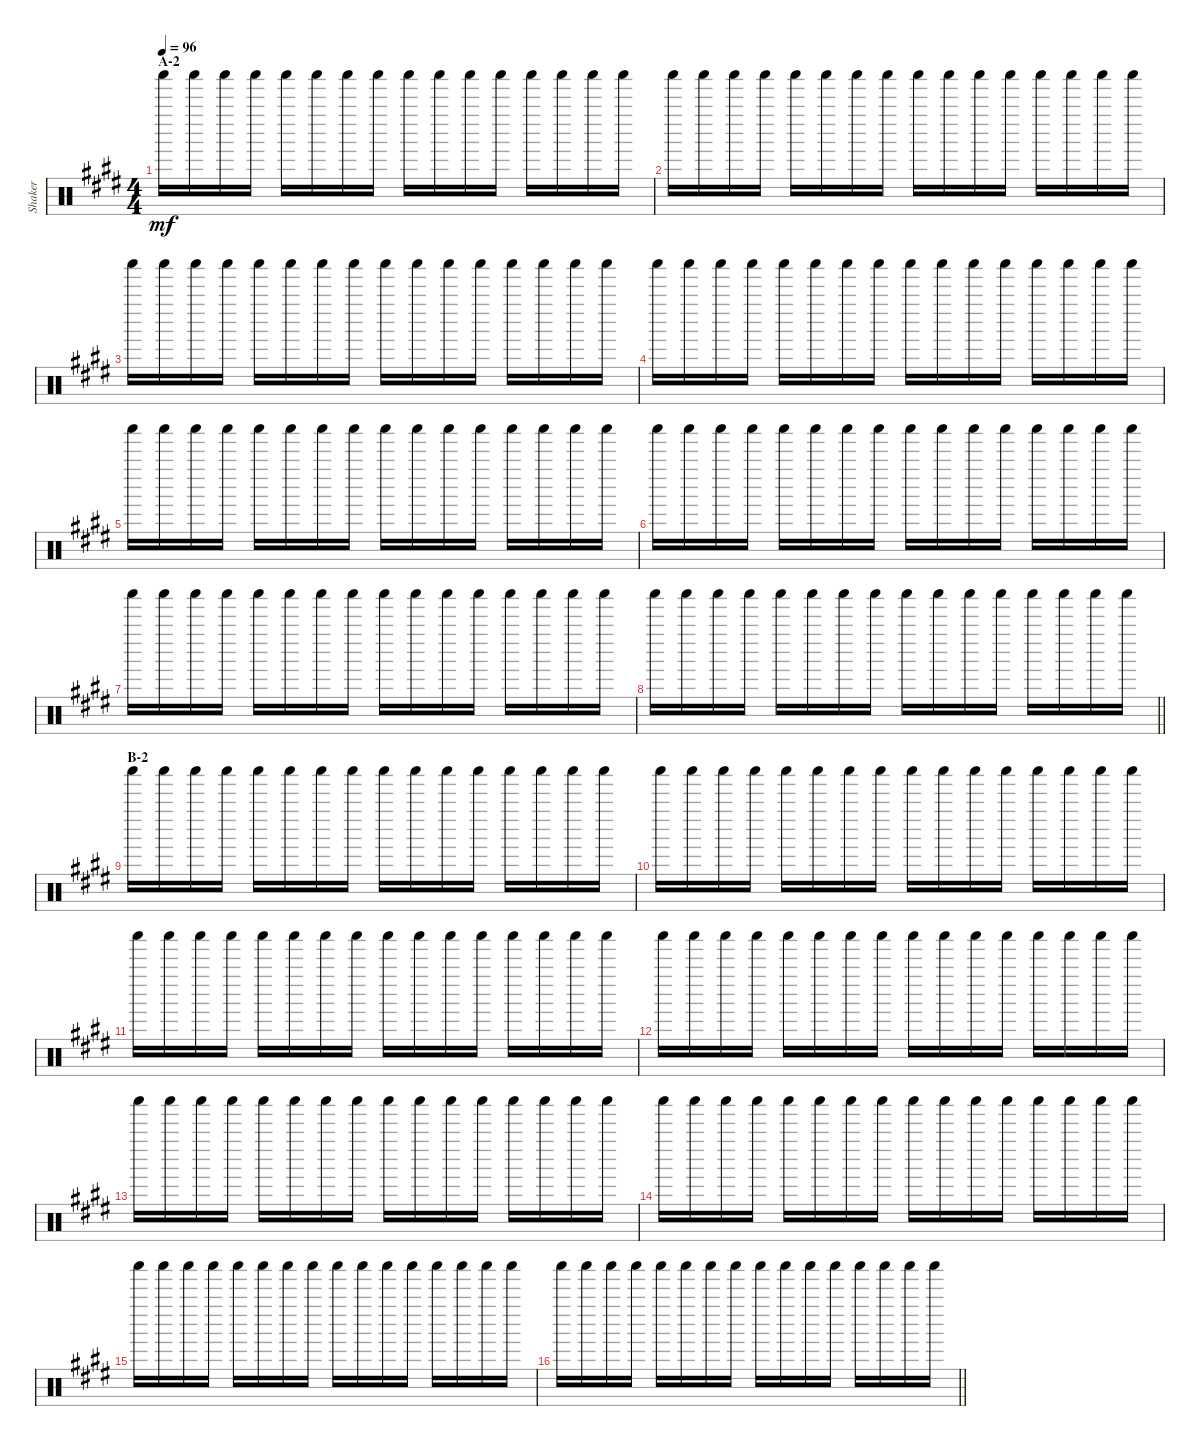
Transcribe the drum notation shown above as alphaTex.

\track ("Shaker" "Shaker") {instrument percussion}
\staff {score}
\articulation defaults
\ts (4 4)
\section ("" "A-2")
\tempo 96
\clef neutral
\ks e "Shaker (hit)".16{dy mf} "Shaker (hit)".16 "Shaker (hit)".16 "Shaker (hit)".16 "Shaker (hit)".16 "Shaker (hit)".16 "Shaker (hit)".16 "Shaker (hit)".16 "Shaker (hit)".16 "Shaker (hit)".16 "Shaker (hit)".16 "Shaker (hit)".16 "Shaker (hit)".16 "Shaker (hit)".16 "Shaker (hit)".16 "Shaker (hit)".16
|
"Shaker (hit)".16 "Shaker (hit)".16 "Shaker (hit)".16 "Shaker (hit)".16 "Shaker (hit)".16 "Shaker (hit)".16 "Shaker (hit)".16 "Shaker (hit)".16 "Shaker (hit)".16 "Shaker (hit)".16 "Shaker (hit)".16 "Shaker (hit)".16 "Shaker (hit)".16 "Shaker (hit)".16 "Shaker (hit)".16 "Shaker (hit)".16 |
"Shaker (hit)".16 "Shaker (hit)".16 "Shaker (hit)".16 "Shaker (hit)".16 "Shaker (hit)".16 "Shaker (hit)".16 "Shaker (hit)".16 "Shaker (hit)".16 "Shaker (hit)".16 "Shaker (hit)".16 "Shaker (hit)".16 "Shaker (hit)".16 "Shaker (hit)".16 "Shaker (hit)".16 "Shaker (hit)".16 "Shaker (hit)".16 |
"Shaker (hit)".16 "Shaker (hit)".16 "Shaker (hit)".16 "Shaker (hit)".16 "Shaker (hit)".16 "Shaker (hit)".16 "Shaker (hit)".16 "Shaker (hit)".16 "Shaker (hit)".16 "Shaker (hit)".16 "Shaker (hit)".16 "Shaker (hit)".16 "Shaker (hit)".16 "Shaker (hit)".16 "Shaker (hit)".16 "Shaker (hit)".16 |
"Shaker (hit)".16 "Shaker (hit)".16 "Shaker (hit)".16 "Shaker (hit)".16 "Shaker (hit)".16 "Shaker (hit)".16 "Shaker (hit)".16 "Shaker (hit)".16 "Shaker (hit)".16 "Shaker (hit)".16 "Shaker (hit)".16 "Shaker (hit)".16 "Shaker (hit)".16 "Shaker (hit)".16 "Shaker (hit)".16 "Shaker (hit)".16 |
"Shaker (hit)".16 "Shaker (hit)".16 "Shaker (hit)".16 "Shaker (hit)".16 "Shaker (hit)".16 "Shaker (hit)".16 "Shaker (hit)".16 "Shaker (hit)".16 "Shaker (hit)".16 "Shaker (hit)".16 "Shaker (hit)".16 "Shaker (hit)".16 "Shaker (hit)".16 "Shaker (hit)".16 "Shaker (hit)".16 "Shaker (hit)".16 |
"Shaker (hit)".16 "Shaker (hit)".16 "Shaker (hit)".16 "Shaker (hit)".16 "Shaker (hit)".16 "Shaker (hit)".16 "Shaker (hit)".16 "Shaker (hit)".16 "Shaker (hit)".16 "Shaker (hit)".16 "Shaker (hit)".16 "Shaker (hit)".16 "Shaker (hit)".16 "Shaker (hit)".16 "Shaker (hit)".16 "Shaker (hit)".16 |
\barLineRight lightlight "Shaker (hit)".16 "Shaker (hit)".16 "Shaker (hit)".16 "Shaker (hit)".16 "Shaker (hit)".16 "Shaker (hit)".16 "Shaker (hit)".16 "Shaker (hit)".16 "Shaker (hit)".16 "Shaker (hit)".16 "Shaker (hit)".16 "Shaker (hit)".16 "Shaker (hit)".16 "Shaker (hit)".16 "Shaker (hit)".16 "Shaker (hit)".16
|
\section ("" "B-2")
"Shaker (hit)".16 "Shaker (hit)".16 "Shaker (hit)".16 "Shaker (hit)".16 "Shaker (hit)".16 "Shaker (hit)".16 "Shaker (hit)".16 "Shaker (hit)".16 "Shaker (hit)".16 "Shaker (hit)".16 "Shaker (hit)".16 "Shaker (hit)".16 "Shaker (hit)".16 "Shaker (hit)".16 "Shaker (hit)".16 "Shaker (hit)".16 |
"Shaker (hit)".16 "Shaker (hit)".16 "Shaker (hit)".16 "Shaker (hit)".16 "Shaker (hit)".16 "Shaker (hit)".16 "Shaker (hit)".16 "Shaker (hit)".16 "Shaker (hit)".16 "Shaker (hit)".16 "Shaker (hit)".16 "Shaker (hit)".16 "Shaker (hit)".16 "Shaker (hit)".16 "Shaker (hit)".16 "Shaker (hit)".16 |
"Shaker (hit)".16 "Shaker (hit)".16 "Shaker (hit)".16 "Shaker (hit)".16 "Shaker (hit)".16 "Shaker (hit)".16 "Shaker (hit)".16 "Shaker (hit)".16 "Shaker (hit)".16 "Shaker (hit)".16 "Shaker (hit)".16 "Shaker (hit)".16 "Shaker (hit)".16 "Shaker (hit)".16 "Shaker (hit)".16 "Shaker (hit)".16 |
"Shaker (hit)".16 "Shaker (hit)".16 "Shaker (hit)".16 "Shaker (hit)".16 "Shaker (hit)".16 "Shaker (hit)".16 "Shaker (hit)".16 "Shaker (hit)".16 "Shaker (hit)".16 "Shaker (hit)".16 "Shaker (hit)".16 "Shaker (hit)".16 "Shaker (hit)".16 "Shaker (hit)".16 "Shaker (hit)".16 "Shaker (hit)".16 |
"Shaker (hit)".16 "Shaker (hit)".16 "Shaker (hit)".16 "Shaker (hit)".16 "Shaker (hit)".16 "Shaker (hit)".16 "Shaker (hit)".16 "Shaker (hit)".16 "Shaker (hit)".16 "Shaker (hit)".16 "Shaker (hit)".16 "Shaker (hit)".16 "Shaker (hit)".16 "Shaker (hit)".16 "Shaker (hit)".16 "Shaker (hit)".16 |
"Shaker (hit)".16 "Shaker (hit)".16 "Shaker (hit)".16 "Shaker (hit)".16 "Shaker (hit)".16 "Shaker (hit)".16 "Shaker (hit)".16 "Shaker (hit)".16 "Shaker (hit)".16 "Shaker (hit)".16 "Shaker (hit)".16 "Shaker (hit)".16 "Shaker (hit)".16 "Shaker (hit)".16 "Shaker (hit)".16 "Shaker (hit)".16 |
"Shaker (hit)".16 "Shaker (hit)".16 "Shaker (hit)".16 "Shaker (hit)".16 "Shaker (hit)".16 "Shaker (hit)".16 "Shaker (hit)".16 "Shaker (hit)".16 "Shaker (hit)".16 "Shaker (hit)".16 "Shaker (hit)".16 "Shaker (hit)".16 "Shaker (hit)".16 "Shaker (hit)".16 "Shaker (hit)".16 "Shaker (hit)".16 |
\barLineRight lightlight "Shaker (hit)".16 "Shaker (hit)".16 "Shaker (hit)".16 "Shaker (hit)".16 "Shaker (hit)".16 "Shaker (hit)".16 "Shaker (hit)".16 "Shaker (hit)".16 "Shaker (hit)".16 "Shaker (hit)".16 "Shaker (hit)".16 "Shaker (hit)".16 "Shaker (hit)".16 "Shaker (hit)".16 "Shaker (hit)".16 "Shaker (hit)".16
